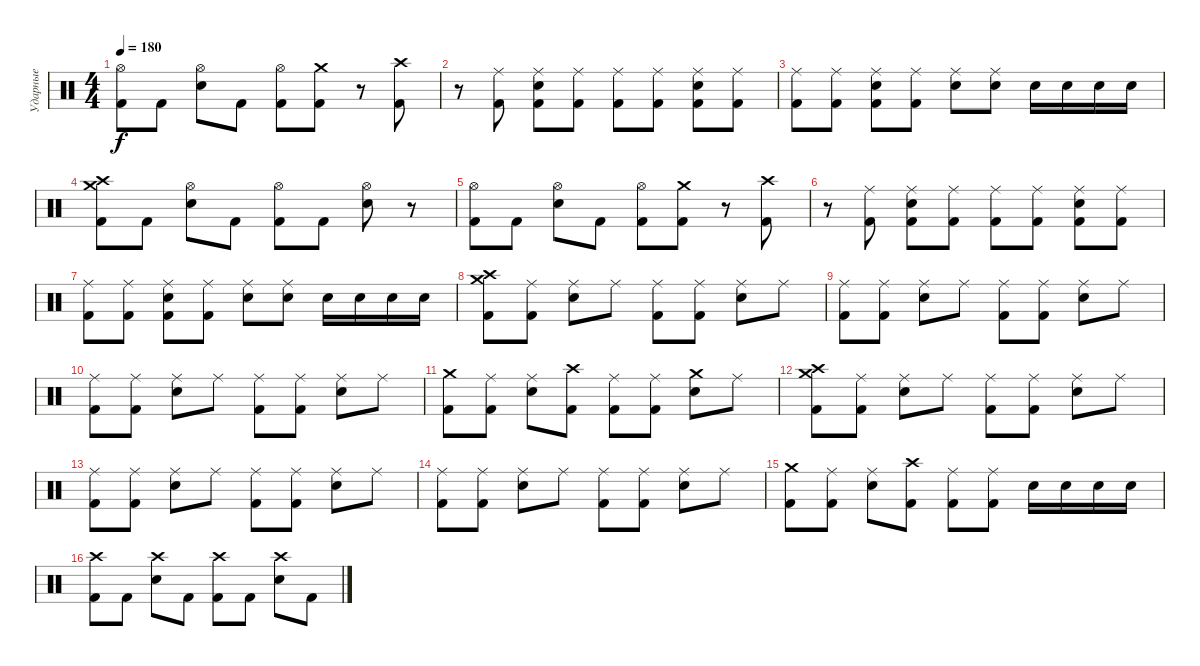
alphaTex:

\track ("Ударные" "Ударные") {instrument percussion}
\staff {score}
\articulation defaults
\ts (4 4)
\tempo 180
\clef neutral
\ks c
("Hi-Hat (open)" "Kick (hit) 2").8{dy f} "Kick (hit) 2".8 ("Hi-Hat (open)" "Electric Snare (hit)").8 "Kick (hit) 2".8 ("Hi-Hat (open)" "Kick (hit) 2").8 ("Crash medium (hit)" "Kick (hit) 2").8 r.8 ("Crash high (hit)" "Kick (hit) 2").8 |
r.8 ("Ride (middle)" "Kick (hit) 2").8 ("Ride (middle)" "Electric Snare (hit)" "Kick (hit) 2").8 ("Ride (middle)" "Kick (hit) 2").8 ("Ride (middle)" "Kick (hit) 2").8 ("Ride (middle)" "Kick (hit) 2").8 ("Ride (middle)" "Electric Snare (hit)" "Kick (hit) 2").8 ("Ride (middle)" "Kick (hit) 2").8 |
("Ride (middle)" "Kick (hit) 2").8 ("Ride (middle)" "Kick (hit) 2").8 ("Ride (middle)" "Electric Snare (hit)" "Kick (hit) 2").8 ("Ride (middle)" "Kick (hit) 2").8 ("Ride (middle)" "Electric Snare (hit)").8 ("Ride (middle)" "Electric Snare (hit)").8 "Electric Snare (hit)".16 "Electric Snare (hit)".16 "Electric Snare (hit)".16 "Electric Snare (hit)".16 |
("Crash medium (hit)" "Crash high (hit)" "Kick (hit) 2").8 "Kick (hit) 2".8 ("Hi-Hat (open)" "Electric Snare (hit)").8 "Kick (hit) 2".8 ("Hi-Hat (open)" "Kick (hit) 2").8 "Kick (hit) 2".8 ("Hi-Hat (open)" "Electric Snare (hit)").8 r.8 |
("Hi-Hat (open)" "Kick (hit) 2").8 "Kick (hit) 2".8 ("Hi-Hat (open)" "Electric Snare (hit)").8 "Kick (hit) 2".8 ("Hi-Hat (open)" "Kick (hit) 2").8 ("Crash medium (hit)" "Kick (hit) 2").8 r.8 ("Crash high (hit)" "Kick (hit) 2").8 |
r.8 ("Ride (middle)" "Kick (hit) 2").8 ("Ride (middle)" "Electric Snare (hit)" "Kick (hit) 2").8 ("Ride (middle)" "Kick (hit) 2").8 ("Ride (middle)" "Kick (hit) 2").8 ("Ride (middle)" "Kick (hit) 2").8 ("Ride (middle)" "Electric Snare (hit)" "Kick (hit) 2").8 ("Ride (middle)" "Kick (hit) 2").8 |
("Ride (middle)" "Kick (hit) 2").8 ("Ride (middle)" "Kick (hit) 2").8 ("Ride (middle)" "Electric Snare (hit)" "Kick (hit) 2").8 ("Ride (middle)" "Kick (hit) 2").8 ("Ride (middle)" "Electric Snare (hit)").8 ("Ride (middle)" "Electric Snare (hit)").8 "Electric Snare (hit)".16 "Electric Snare (hit)".16 "Electric Snare (hit)".16 "Electric Snare (hit)".16 |
("Crash medium (hit)" "Crash high (hit)" "Kick (hit) 2").8 ("Ride (middle)" "Kick (hit) 2").8 ("Ride (middle)" "Electric Snare (hit)").8 "Ride (middle)".8 ("Ride (middle)" "Kick (hit) 2").8 ("Ride (middle)" "Kick (hit) 2").8 ("Ride (middle)" "Electric Snare (hit)").8 "Ride (middle)".8 |
("Ride (middle)" "Kick (hit) 2").8 ("Ride (middle)" "Kick (hit) 2").8 ("Ride (middle)" "Electric Snare (hit)").8 "Ride (middle)".8 ("Ride (middle)" "Kick (hit) 2").8 ("Ride (middle)" "Kick (hit) 2").8 ("Ride (middle)" "Electric Snare (hit)").8 "Ride (middle)".8 |
("Ride (middle)" "Kick (hit) 2").8 ("Ride (middle)" "Kick (hit) 2").8 ("Ride (middle)" "Electric Snare (hit)").8 "Ride (middle)".8 ("Ride (middle)" "Kick (hit) 2").8 ("Ride (middle)" "Kick (hit) 2").8 ("Ride (middle)" "Electric Snare (hit)").8 "Ride (middle)".8 |
("Crash medium (hit)" "Kick (hit) 2").8 ("Ride (middle)" "Kick (hit) 2").8 ("Ride (middle)" "Electric Snare (hit)").8 ("Crash high (hit)" "Kick (hit) 2").8 ("Ride (middle)" "Kick (hit) 2").8 ("Ride (middle)" "Kick (hit) 2").8 ("Crash medium (hit)" "Electric Snare (hit)").8 "Ride (middle)".8 |
("Crash medium (hit)" "Crash high (hit)" "Kick (hit) 2").8 ("Ride (middle)" "Kick (hit) 2").8 ("Ride (middle)" "Electric Snare (hit)").8 "Ride (middle)".8 ("Ride (middle)" "Kick (hit) 2").8 ("Ride (middle)" "Kick (hit) 2").8 ("Ride (middle)" "Electric Snare (hit)").8 "Ride (middle)".8 |
("Ride (middle)" "Kick (hit) 2").8 ("Ride (middle)" "Kick (hit) 2").8 ("Ride (middle)" "Electric Snare (hit)").8 "Ride (middle)".8 ("Ride (middle)" "Kick (hit) 2").8 ("Ride (middle)" "Kick (hit) 2").8 ("Ride (middle)" "Electric Snare (hit)").8 "Ride (middle)".8 |
("Ride (middle)" "Kick (hit) 2").8 ("Ride (middle)" "Kick (hit) 2").8 ("Ride (middle)" "Electric Snare (hit)").8 "Ride (middle)".8 ("Ride (middle)" "Kick (hit) 2").8 ("Ride (middle)" "Kick (hit) 2").8 ("Ride (middle)" "Electric Snare (hit)").8 "Ride (middle)".8 |
("Crash medium (hit)" "Kick (hit) 2").8 ("Ride (middle)" "Kick (hit) 2").8 ("Ride (middle)" "Electric Snare (hit)").8 ("Crash high (hit)" "Kick (hit) 2").8 ("Ride (middle)" "Kick (hit) 2").8 ("Ride (middle)" "Kick (hit) 2").8 "Electric Snare (hit)".16 "Electric Snare (hit)".16 "Electric Snare (hit)".16 "Electric Snare (hit)".16 |
("Crash high (hit)" "Kick (hit) 2").8 "Kick (hit) 2".8 ("Crash high (hit)" "Electric Snare (hit)").8 "Kick (hit) 2".8 ("Crash high (hit)" "Kick (hit) 2").8 "Kick (hit) 2".8 ("Crash high (hit)" "Electric Snare (hit)").8 "Kick (hit) 2".8
